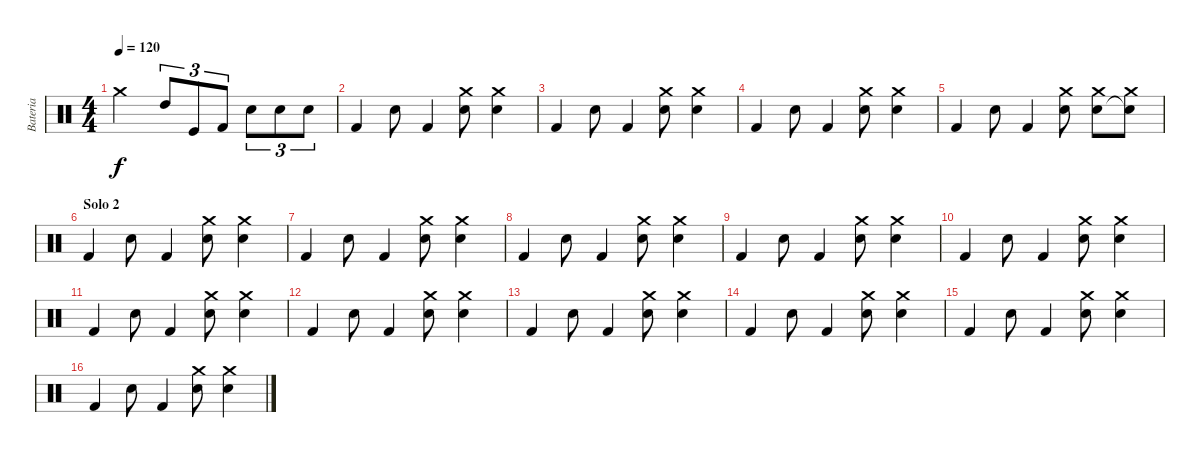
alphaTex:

\track ("Bateria" "Bateria") {instrument percussion}
\staff {score}
\articulation defaults
\ts (4 4)
\tempo 120
\clef neutral
\ks c "Crash medium (hit)".2{dy f} "High Tom (hit)".8{tu (3 2)} "Kick (hit)".8{tu (3 2)} "Kick (hit) 2".8{tu (3 2)} "Snare (hit) 2".8{tu (3 2)} "Electric Snare (hit)".8{tu (3 2)} "Snare (hit) 2".8{tu (3 2)}
|
"Kick (hit) 2".4 "Electric Snare (hit)".8 "Kick (hit) 2".4 ("Crash medium (hit)" "Snare (hit) 2").8 ("Crash medium (hit)" "Snare (hit) 2").4 |
"Kick (hit) 2".4 "Electric Snare (hit)".8 "Kick (hit) 2".4 ("Crash medium (hit)" "Snare (hit) 2").8 ("Crash medium (hit)" "Snare (hit) 2").4 |
"Kick (hit) 2".4 "Electric Snare (hit)".8 "Kick (hit) 2".4 ("Crash medium (hit)" "Snare (hit) 2").8 ("Crash medium (hit)" "Snare (hit) 2").4 |
"Kick (hit) 2".4 "Electric Snare (hit)".8 "Kick (hit) 2".4 ("Crash medium (hit)" "Snare (hit) 2").8 ("Crash medium (hit)" "Snare (hit) 2").8 ("Crash medium (hit)" "Snare (hit)"{t}).8 |
\section ("" "Solo 2")
"Kick (hit) 2".4 "Electric Snare (hit)".8 "Kick (hit) 2".4 ("Crash medium (hit)" "Snare (hit) 2").8 ("Crash medium (hit)" "Snare (hit) 2").4 |
"Kick (hit) 2".4 "Electric Snare (hit)".8 "Kick (hit) 2".4 ("Crash medium (hit)" "Snare (hit) 2").8 ("Crash medium (hit)" "Snare (hit) 2").4 |
"Kick (hit) 2".4 "Electric Snare (hit)".8 "Kick (hit) 2".4 ("Crash medium (hit)" "Snare (hit) 2").8 ("Crash medium (hit)" "Snare (hit) 2").4 |
"Kick (hit) 2".4 "Electric Snare (hit)".8 "Kick (hit) 2".4 ("Crash medium (hit)" "Snare (hit) 2").8 ("Crash medium (hit)" "Snare (hit) 2").4 |
"Kick (hit) 2".4 "Electric Snare (hit)".8 "Kick (hit) 2".4 ("Crash medium (hit)" "Snare (hit) 2").8 ("Crash medium (hit)" "Snare (hit) 2").4 |
"Kick (hit) 2".4 "Electric Snare (hit)".8 "Kick (hit) 2".4 ("Crash medium (hit)" "Snare (hit) 2").8 ("Crash medium (hit)" "Snare (hit) 2").4 |
"Kick (hit) 2".4 "Electric Snare (hit)".8 "Kick (hit) 2".4 ("Crash medium (hit)" "Snare (hit) 2").8 ("Crash medium (hit)" "Snare (hit) 2").4 |
"Kick (hit) 2".4 "Electric Snare (hit)".8 "Kick (hit) 2".4 ("Crash medium (hit)" "Snare (hit) 2").8 ("Crash medium (hit)" "Snare (hit) 2").4 |
"Kick (hit) 2".4 "Electric Snare (hit)".8 "Kick (hit) 2".4 ("Crash medium (hit)" "Snare (hit) 2").8 ("Crash medium (hit)" "Snare (hit) 2").4 |
"Kick (hit) 2".4 "Electric Snare (hit)".8 "Kick (hit) 2".4 ("Crash medium (hit)" "Snare (hit) 2").8 ("Crash medium (hit)" "Snare (hit) 2").4 |
"Kick (hit) 2".4 "Electric Snare (hit)".8 "Kick (hit) 2".4 ("Crash medium (hit)" "Snare (hit) 2").8 ("Crash medium (hit)" "Snare (hit) 2").4
